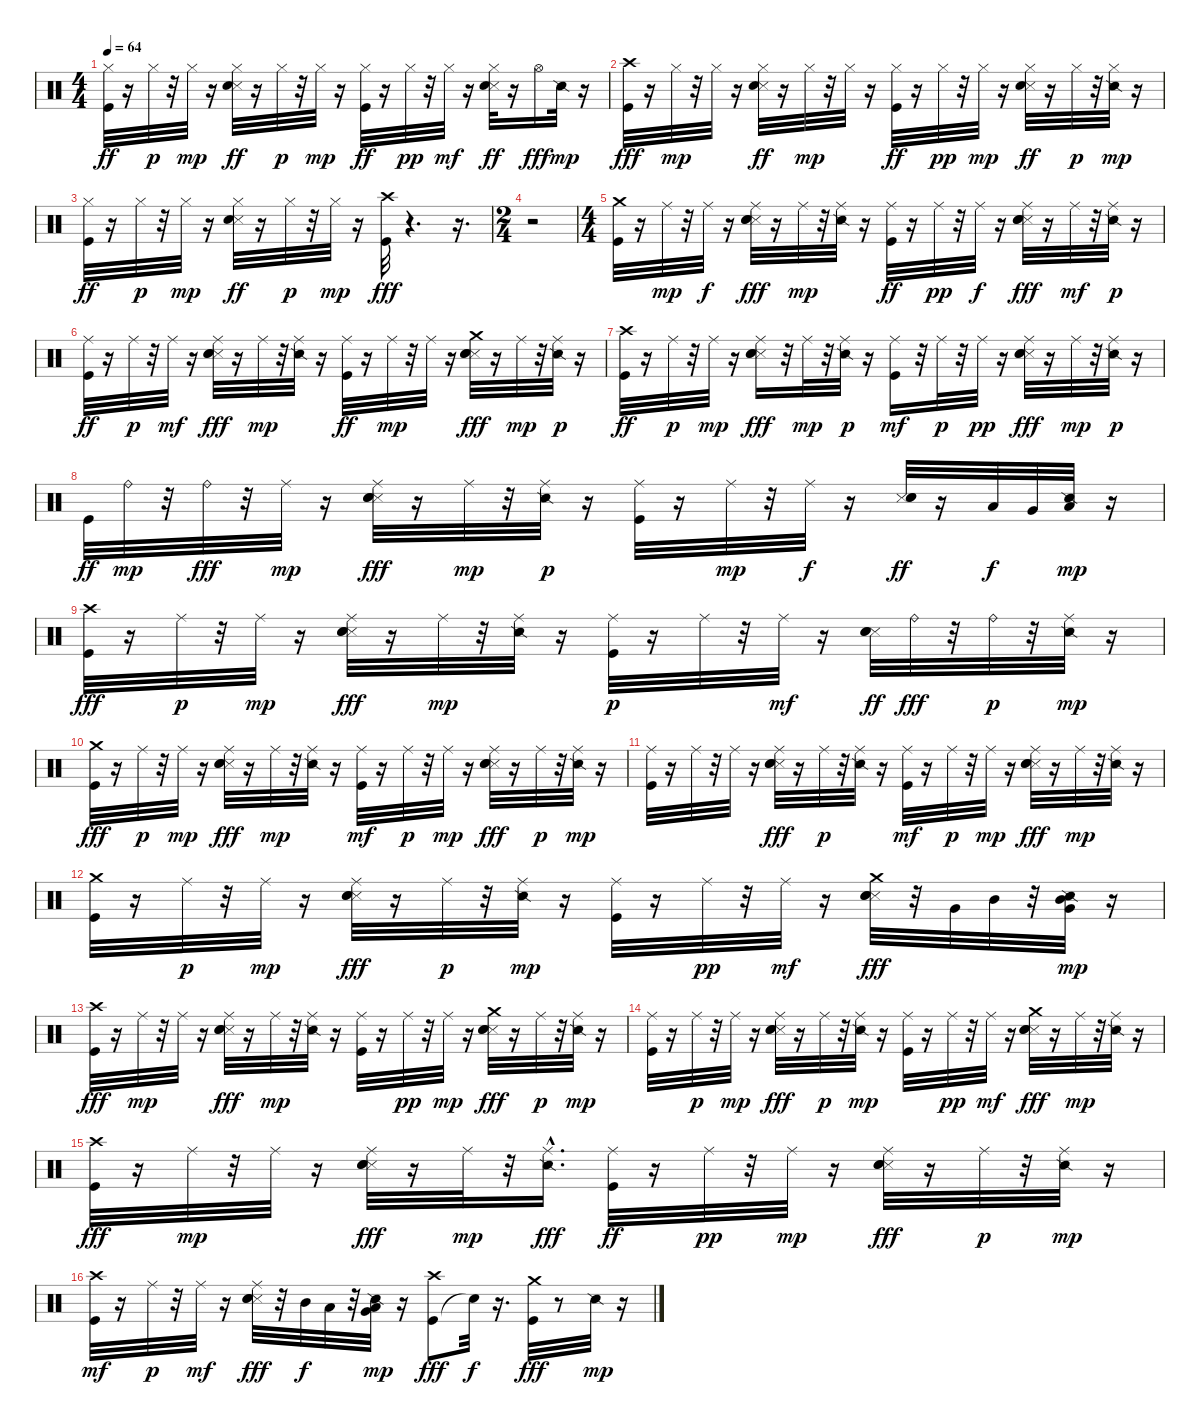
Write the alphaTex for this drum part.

\track "" {instrument percussion}
\staff {score}
\articulation defaults
\ts (4 4)
\tempo 64
\clef neutral
\ks c
("Hi-Hat (closed)" "Kick (hit)").32{dy ff} r.16 "Hi-Hat (closed)".32{dy p} r.32 "Hi-Hat (closed)".32{dy mp} r.16 ("Hi-Hat (closed)" "Snare (side stick) 3" "Electric Snare (hit)").32{dy ff} r.16 "Hi-Hat (closed)".32{dy p} r.32 "Hi-Hat (closed)".32{dy mp} r.16 ("Hi-Hat (closed)" "Kick (hit)").32{dy ff} r.16 "Hi-Hat (closed)".32{dy pp} r.32 "Hi-Hat (closed)".32{dy mf} r.16 ("Hi-Hat (closed)" "Snare (side stick) 3" "Electric Snare (hit)").32{dy ff} r.16 "Hi-Hat (open)".16{dy fff} "Snare (side stick) 2".32{dy mp} r.16 |
("Kick (hit)" "Crash high (hit)").32{dy fff} r.16 "Hi-Hat (closed)".32{dy mp} r.32 "Hi-Hat (closed)".32 r.16 ("Hi-Hat (closed)" "Snare (side stick) 3" "Electric Snare (hit)").32{dy ff} r.16 "Hi-Hat (closed)".32{dy mp} r.32 "Hi-Hat (closed)".32 r.16 ("Hi-Hat (closed)" "Kick (hit)").32{dy ff} r.16 "Hi-Hat (closed)".32{dy pp} r.32 "Hi-Hat (closed)".32{dy mp} r.16 ("Hi-Hat (closed)" "Snare (side stick) 3" "Electric Snare (hit)").32{dy ff} r.16 "Hi-Hat (closed)".32{dy p} r.32 ("Hi-Hat (closed)" "Snare (side stick) 2").32{dy mp} r.16 |
("Hi-Hat (closed)" "Kick (hit)").32{dy ff} r.16 "Hi-Hat (closed)".32{dy p} r.32 "Hi-Hat (closed)".32{dy mp} r.16 ("Hi-Hat (closed)" "Snare (side stick) 3" "Electric Snare (hit)").32{dy ff} r.16 "Hi-Hat (closed)".32{dy p} r.32 "Hi-Hat (closed)".32{dy mp} r.16 ("Kick (hit)" "Crash high (hit)").32{dy fff} r.4{d} r.16{d} |
\ts (2 4)
r.2 |
\ts (4 4)
("Kick (hit)" "Crash medium (hit)").32 r.16 "Ride (middle)".32{dy mp} r.32 "Ride (middle)".32{dy f} r.16 ("Snare (side stick) 3" "Electric Snare (hit)" "Electric Snare (hit)" "Ride (middle)").32{dy fff} r.16 "Ride (middle)".32{dy mp} r.32 ("Snare (side stick) 2" "Ride (middle)").32 r.16 ("Kick (hit)" "Ride (middle)").32{dy ff} r.16 "Ride (middle)".32{dy pp} r.32 "Ride (middle)".32{dy f} r.16 ("Snare (side stick) 3" "Electric Snare (hit)" "Electric Snare (hit)" "Ride (middle)").32{dy fff} r.16 "Ride (middle)".32{dy mf} r.32 ("Snare (side stick) 2" "Ride (middle)").32{dy p} r.16 |
("Kick (hit)" "Ride (middle)").32{dy ff} r.16 "Ride (middle)".32{dy p} r.32 "Ride (middle)".32{dy mf} r.16 ("Snare (side stick) 3" "Electric Snare (hit)" "Electric Snare (hit)" "Ride (middle)").32{dy fff} r.16 "Ride (middle)".32{dy mp} r.32 ("Snare (side stick) 2" "Ride (middle)").32 r.16 ("Kick (hit)" "Ride (middle)").32{dy ff} r.16 "Ride (middle)".32{dy mp} r.32 "Ride (middle)".32 r.16 ("Snare (side stick) 3" "Electric Snare (hit)" "Electric Snare (hit)" "Crash medium (hit)").32{dy fff} r.16 "Ride (middle)".32{dy mp} r.32 ("Snare (side stick) 2" "Ride (middle)").32{dy p} r.16 |
("Kick (hit)" "Crash high (hit)").32{dy ff} r.16 "Ride (middle)".32{dy p} r.32 "Ride (middle)".32{dy mp} r.16 ("Snare (side stick) 3" "Electric Snare (hit)" "Electric Snare (hit)" "Ride (middle)").16{dy fff} r.32 "Ride (middle)".32{dy mp} r.32 ("Snare (side stick) 2" "Ride (middle)").32{dy p} r.16 ("Kick (hit)" "Ride (middle)").16{dy mf} r.32 "Ride (middle)".32{dy p} r.32 "Ride (middle)".32{dy pp} r.16 ("Snare (side stick) 3" "Electric Snare (hit)" "Electric Snare (hit)" "Ride (middle)").32{dy fff} r.16 "Ride (middle)".32{dy mp} r.32 ("Snare (side stick) 2" "Ride (middle)").32{dy p} r.16 |
"Kick (hit)".32{dy ff} "Ride (bell)".32{dy mp} r.32 "Ride (bell)".32{dy fff} r.32 "Ride (middle)".32{dy mp} r.16 ("Snare (side stick) 3" "Electric Snare (hit)" "Electric Snare (hit)" "Ride (middle)").32{dy fff} r.16 "Ride (middle)".32{dy mp} r.32 ("Snare (side stick) 2" "Ride (middle)").32{dy p} r.16 ("Kick (hit)" "Ride (middle)").32 r.16 "Ride (middle)".32{dy mp} r.32 "Ride (middle)".32{dy f} r.16 ("Snare (side stick) 3" "Electric Snare (hit)" "Electric Snare (hit)").32{dy ff} r.16 "Low Tom (hit)".32{dy f} "Very Low Tom (hit)".32 ("Low Floor Tom (hit)" "Snare (side stick) 2").32{dy mp} r.16 |
("Kick (hit)" "Crash high (hit)").32{dy fff} r.16 "Ride (middle)".32{dy p} r.32 "Ride (middle)".32{dy mp} r.16 ("Snare (side stick) 3" "Electric Snare (hit)" "Electric Snare (hit)" "Ride (middle)").32{dy fff} r.16 "Ride (middle)".32{dy mp} r.32 ("Snare (side stick) 2" "Ride (middle)").32 r.16 ("Kick (hit)" "Ride (middle)").32{dy p} r.16 "Ride (middle)".32 r.32 "Ride (middle)".32{dy mf} r.16 ("Snare (side stick) 3" "Electric Snare (hit)" "Electric Snare (hit)").32{dy ff} "Ride (bell)".32{dy fff} r.32 "Ride (bell)".32{dy p} r.32 ("Snare (side stick) 2" "Ride (middle)").32{dy mp} r.16 |
("Kick (hit)" "Crash medium (hit)").32{dy fff} r.16 "Ride (middle)".32{dy p} r.32 "Ride (middle)".32{dy mp} r.16 ("Snare (side stick) 3" "Electric Snare (hit)" "Electric Snare (hit)" "Ride (middle)").32{dy fff} r.16 "Ride (middle)".32{dy mp} r.32 ("Snare (side stick) 2" "Ride (middle)").32 r.16 ("Kick (hit)" "Ride (middle)").32{dy mf} r.16 "Ride (middle)".32{dy p} r.32 "Ride (middle)".32{dy mp} r.16 ("Snare (side stick) 3" "Electric Snare (hit)" "Electric Snare (hit)" "Ride (middle)").32{dy fff} r.16 "Ride (middle)".32{dy p} r.32 ("Snare (side stick) 2" "Ride (middle)").32{dy mp} r.16 |
("Kick (hit)" "Ride (middle)").32 r.16 "Ride (middle)".32 r.32 "Ride (middle)".32 r.16 ("Snare (side stick) 3" "Electric Snare (hit)" "Electric Snare (hit)" "Ride (middle)").32{dy fff} r.16 "Ride (middle)".32{dy p} r.32 ("Snare (side stick) 2" "Ride (middle)").32 r.16 ("Kick (hit)" "Ride (middle)").32{dy mf} r.16 "Ride (middle)".32{dy p} r.32 "Ride (middle)".32{dy mp} r.16 ("Snare (side stick) 3" "Electric Snare (hit)" "Electric Snare (hit)" "Ride (middle)").32{dy fff} r.16 "Ride (middle)".32{dy mp} r.32 ("Snare (side stick) 2" "Ride (middle)").32 r.16 |
("Kick (hit)" "Crash medium (hit)").32 r.16 "Ride (middle)".32{dy p} r.32 "Ride (middle)".32{dy mp} r.16 ("Snare (side stick) 3" "Electric Snare (hit)" "Electric Snare (hit)" "Ride (middle)").32{dy fff} r.16 "Ride (middle)".32{dy p} r.32 ("Snare (side stick) 2" "Ride (middle)").32{dy mp} r.16 ("Kick (hit)" "Ride (middle)").32 r.16 "Ride (middle)".32{dy pp} r.32 "Ride (middle)".32{dy mf} r.16 ("Snare (side stick) 3" "Electric Snare (hit)" "Electric Snare (hit)" "Crash medium (hit)").32{dy fff} r.32 "Very Low Tom (hit)".32 "Mid Tom (hit)".32 r.32 ("Mid Tom (hit)" "Very Low Tom (hit)" "Snare (side stick) 2").32{dy mp} r.16 |
("Kick (hit)" "Crash high (hit)").32{dy fff} r.16 "Ride (middle)".32{dy mp} r.32 "Ride (middle)".32 r.16 ("Snare (side stick) 3" "Electric Snare (hit)" "Electric Snare (hit)" "Ride (middle)").32{dy fff} r.16 "Ride (middle)".32{dy mp} r.32 ("Snare (side stick) 2" "Ride (middle)").32 r.16 ("Kick (hit)" "Ride (middle)").32 r.16 "Ride (middle)".32{dy pp} r.32 "Ride (middle)".32{dy mp} r.16 ("Snare (side stick) 3" "Electric Snare (hit)" "Electric Snare (hit)" "Crash medium (hit)").32{dy fff} r.16 "Ride (middle)".32{dy p} r.32 ("Snare (side stick) 2" "Ride (middle)").32{dy mp} r.16 |
("Kick (hit)" "Ride (middle)").32 r.16 "Ride (middle)".32{dy p} r.32 "Ride (middle)".32{dy mp} r.16 ("Snare (side stick) 3" "Electric Snare (hit)" "Electric Snare (hit)" "Ride (middle)").32{dy fff} r.16 "Ride (middle)".32{dy p} r.32 ("Snare (side stick) 2" "Ride (middle)").32{dy mp} r.16 ("Kick (hit)" "Ride (middle)").32 r.16 "Ride (middle)".32{dy pp} r.32 "Ride (middle)".32{dy mf} r.16 ("Snare (side stick) 3" "Electric Snare (hit)" "Electric Snare (hit)" "Crash medium (hit)").32{dy fff} r.16 "Ride (middle)".32{dy mp} r.32 ("Snare (side stick) 2" "Ride (middle)").32 r.16 |
("Kick (hit)" "Crash high (hit)").32{dy fff} r.16 "Ride (middle)".32{dy mp} r.32 "Ride (middle)".32 r.16 ("Snare (side stick) 3" "Electric Snare (hit)" "Electric Snare (hit)" "Ride (middle)").32{dy fff} r.16 "Ride (middle)".32{dy mp} r.32 ("Snare (side stick) 2" "Ride (middle)"{hac}).16{d dy fff} ("Kick (hit)" "Ride (middle)").32{dy ff} r.16 "Ride (middle)".32{dy pp} r.32 "Ride (middle)".32{dy mp} r.16 ("Snare (side stick) 3" "Electric Snare (hit)" "Electric Snare (hit)" "Ride (middle)").32{dy fff} r.16 "Ride (middle)".32{dy p} r.32 ("Snare (side stick) 2" "Ride (middle)").32{dy mp} r.16 |
("Kick (hit)" "Crash high (hit)").32{dy mf} r.16 "Ride (middle)".32{dy p} r.32 "Ride (middle)".32{dy mf} r.16 ("Snare (side stick) 3" "Electric Snare (hit)" "Electric Snare (hit)" "Ride (middle)").32{dy fff} r.32 "Mid Tom (hit)".32{dy f} "Low Tom (hit)".32 r.32 ("Very Low Tom (hit)" "Low Floor Tom (hit)" "Snare (side stick) 2").32{dy mp} r.16 ("Kick (hit)" "Crash high (hit)").8{dy fff} "Snare (hit)"{t}.32{dy f} r.16{d} ("Kick (hit)" "Crash medium (hit)").32{dy fff} r.8 "Snare (side stick) 2".32{dy mp} r.16
